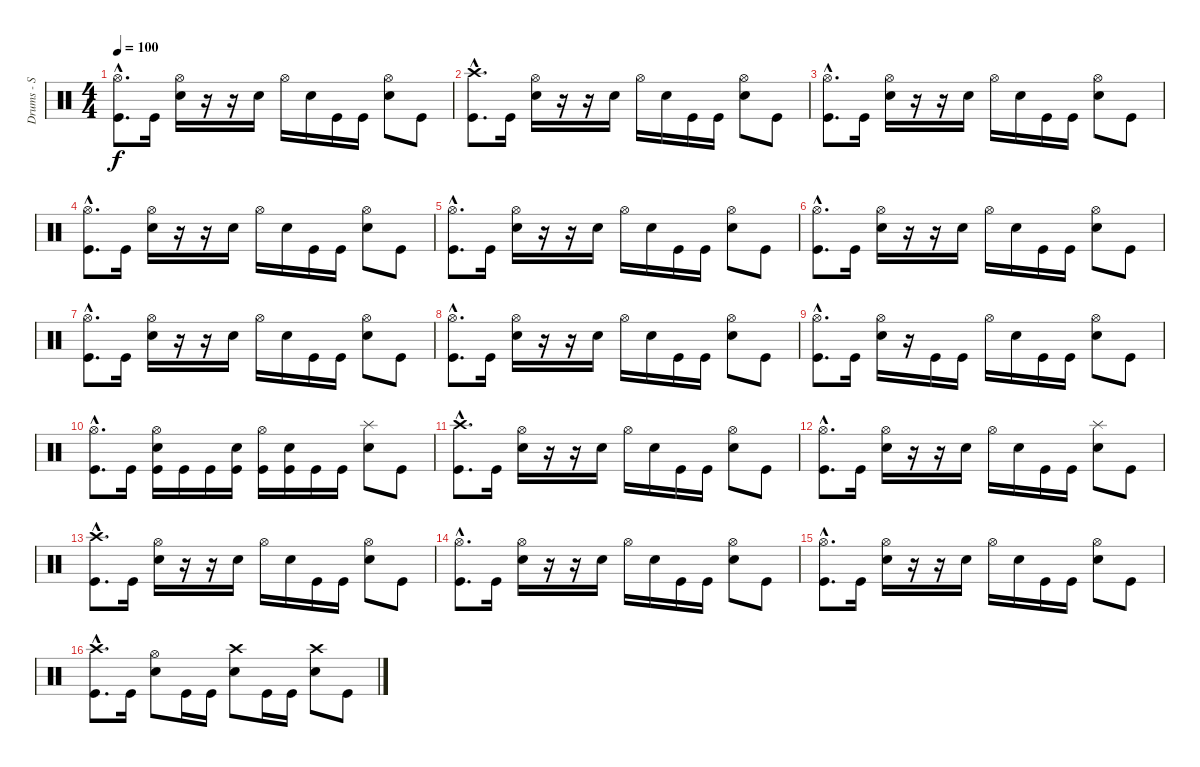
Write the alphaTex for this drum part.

\track ("Drums - S Man" "Drums - S ") {instrument percussion}
\staff {score}
\articulation defaults
\ts (4 4)
\tempo 100
\clef neutral
\ks c
("Hi-Hat (open)"{hac} "Kick (hit)"{hac}).8{d dy f} "Kick (hit)".16 ("Hi-Hat (open)" "Electric Snare (hit)").16 r.16 r.16 "Electric Snare (hit)".16 "Hi-Hat (open)".16 "Electric Snare (hit)".16 "Kick (hit)".16 "Kick (hit)".16 ("Hi-Hat (open)" "Electric Snare (hit)").8 "Kick (hit)".8 |
("Crash high (hit)"{hac} "Kick (hit)"{hac}).8{d} "Kick (hit)".16 ("Hi-Hat (open)" "Electric Snare (hit)").16 r.16 r.16 "Electric Snare (hit)".16 "Hi-Hat (open)".16 "Electric Snare (hit)".16 "Kick (hit)".16 "Kick (hit)".16 ("Hi-Hat (open)" "Electric Snare (hit)").8 "Kick (hit)".8 |
("Hi-Hat (open)"{hac} "Kick (hit)"{hac}).8{d} "Kick (hit)".16 ("Hi-Hat (open)" "Electric Snare (hit)").16 r.16 r.16 "Electric Snare (hit)".16 "Hi-Hat (open)".16 "Electric Snare (hit)".16 "Kick (hit)".16 "Kick (hit)".16 ("Hi-Hat (open)" "Electric Snare (hit)").8 "Kick (hit)".8 |
("Hi-Hat (open)"{hac} "Kick (hit)"{hac}).8{d} "Kick (hit)".16 ("Hi-Hat (open)" "Electric Snare (hit)").16 r.16 r.16 "Electric Snare (hit)".16 "Hi-Hat (open)".16 "Electric Snare (hit)".16 "Kick (hit)".16 "Kick (hit)".16 ("Hi-Hat (open)" "Electric Snare (hit)").8 "Kick (hit)".8 |
("Hi-Hat (open)"{hac} "Kick (hit)"{hac}).8{d} "Kick (hit)".16 ("Hi-Hat (open)" "Electric Snare (hit)").16 r.16 r.16 "Electric Snare (hit)".16 "Hi-Hat (open)".16 "Electric Snare (hit)".16 "Kick (hit)".16 "Kick (hit)".16 ("Hi-Hat (open)" "Electric Snare (hit)").8 "Kick (hit)".8 |
("Hi-Hat (open)"{hac} "Kick (hit)"{hac}).8{d} "Kick (hit)".16 ("Hi-Hat (open)" "Electric Snare (hit)").16 r.16 r.16 "Electric Snare (hit)".16 "Hi-Hat (open)".16 "Electric Snare (hit)".16 "Kick (hit)".16 "Kick (hit)".16 ("Hi-Hat (open)" "Electric Snare (hit)").8 "Kick (hit)".8 |
("Hi-Hat (open)"{hac} "Kick (hit)"{hac}).8{d} "Kick (hit)".16 ("Hi-Hat (open)" "Electric Snare (hit)").16 r.16 r.16 "Electric Snare (hit)".16 "Hi-Hat (open)".16 "Electric Snare (hit)".16 "Kick (hit)".16 "Kick (hit)".16 ("Hi-Hat (open)" "Electric Snare (hit)").8 "Kick (hit)".8 |
("Hi-Hat (open)"{hac} "Kick (hit)"{hac}).8{d} "Kick (hit)".16 ("Hi-Hat (open)" "Electric Snare (hit)").16 r.16 r.16 "Electric Snare (hit)".16 "Hi-Hat (open)".16 "Electric Snare (hit)".16 "Kick (hit)".16 "Kick (hit)".16 ("Hi-Hat (open)" "Electric Snare (hit)").8 "Kick (hit)".8 |
("Hi-Hat (open)"{hac} "Kick (hit)"{hac}).8{d} "Kick (hit)".16 ("Hi-Hat (open)" "Electric Snare (hit)").16 r.16 "Kick (hit)".16 "Kick (hit)".16 "Hi-Hat (open)".16 "Electric Snare (hit)".16 "Kick (hit)".16 "Kick (hit)".16 ("Hi-Hat (open)" "Electric Snare (hit)").8 "Kick (hit)".8 |
("Hi-Hat (open)"{hac} "Kick (hit)"{hac}).8{d} "Kick (hit)".16 ("Hi-Hat (open)" "Electric Snare (hit)" "Kick (hit)").16 "Kick (hit)".16 "Kick (hit)".16 ("Electric Snare (hit)" "Kick (hit)").16 ("Hi-Hat (open)" "Kick (hit)").16 ("Electric Snare (hit)" "Kick (hit)").16 "Kick (hit)".16 "Kick (hit)".16 ("Splash (hit)" "Electric Snare (hit)").8 "Kick (hit)".8 |
("Crash high (hit)"{hac} "Kick (hit)"{hac}).8{d} "Kick (hit)".16 ("Hi-Hat (open)" "Electric Snare (hit)").16 r.16 r.16 "Electric Snare (hit)".16 "Hi-Hat (open)".16 "Electric Snare (hit)".16 "Kick (hit)".16 "Kick (hit)".16 ("Hi-Hat (open)" "Electric Snare (hit)").8 "Kick (hit)".8 |
("Hi-Hat (open)"{hac} "Kick (hit)"{hac}).8{d} "Kick (hit)".16 ("Hi-Hat (open)" "Electric Snare (hit)").16 r.16 r.16 "Electric Snare (hit)".16 "Hi-Hat (open)".16 "Electric Snare (hit)".16 "Kick (hit)".16 "Kick (hit)".16 ("Splash (hit)" "Electric Snare (hit)").8 "Kick (hit)".8 |
("Crash high (hit)"{hac} "Kick (hit)"{hac}).8{d} "Kick (hit)".16 ("Hi-Hat (open)" "Electric Snare (hit)").16 r.16 r.16 "Electric Snare (hit)".16 "Hi-Hat (open)".16 "Electric Snare (hit)".16 "Kick (hit)".16 "Kick (hit)".16 ("Hi-Hat (open)" "Electric Snare (hit)").8 "Kick (hit)".8 |
("Hi-Hat (open)"{hac} "Kick (hit)"{hac}).8{d} "Kick (hit)".16 ("Hi-Hat (open)" "Electric Snare (hit)").16 r.16 r.16 "Electric Snare (hit)".16 "Hi-Hat (open)".16 "Electric Snare (hit)".16 "Kick (hit)".16 "Kick (hit)".16 ("Hi-Hat (open)" "Electric Snare (hit)").8 "Kick (hit)".8 |
("Hi-Hat (open)"{hac} "Kick (hit)"{hac}).8{d} "Kick (hit)".16 ("Hi-Hat (open)" "Electric Snare (hit)").16 r.16 r.16 "Electric Snare (hit)".16 "Hi-Hat (open)".16 "Electric Snare (hit)".16 "Kick (hit)".16 "Kick (hit)".16 ("Hi-Hat (open)" "Electric Snare (hit)").8 "Kick (hit)".8 |
("Crash high (hit)"{hac} "Kick (hit)"{hac}).8{d} "Kick (hit)".16 ("Hi-Hat (open)" "Electric Snare (hit)").8 "Kick (hit)".16 "Kick (hit)".16 ("Crash high (hit)" "Electric Snare (hit)").8 "Kick (hit)".16 "Kick (hit)".16 ("Crash high (hit)" "Electric Snare (hit)").8 "Kick (hit)".8
